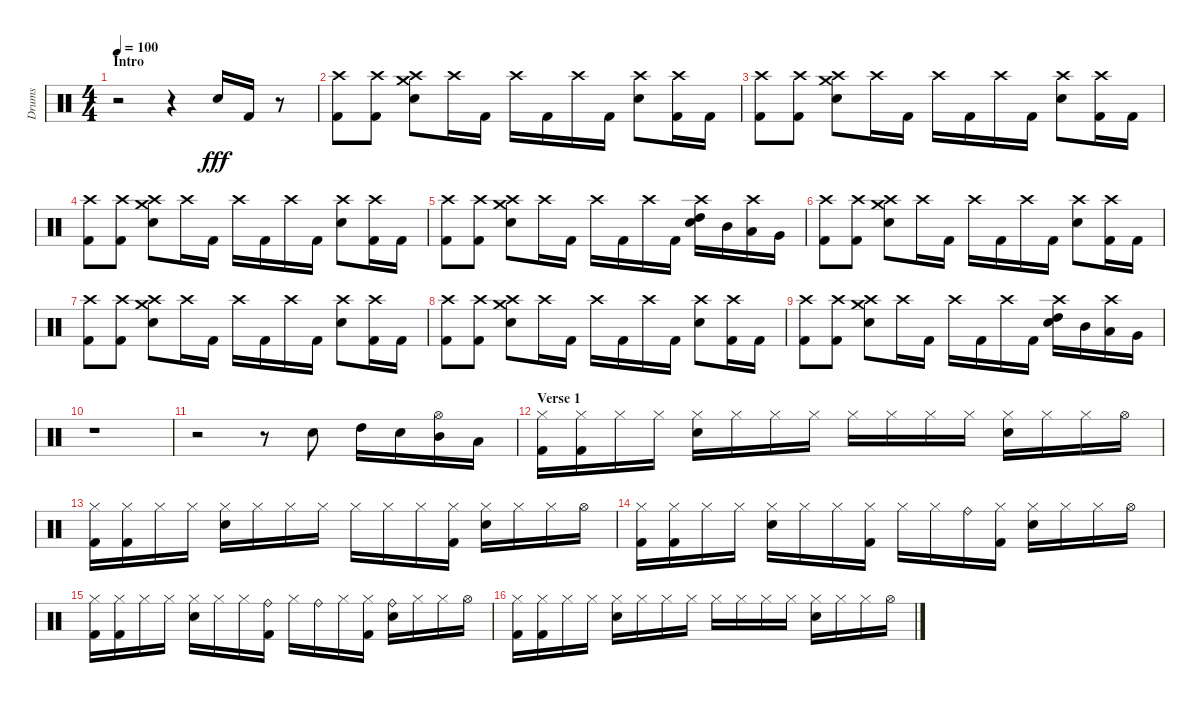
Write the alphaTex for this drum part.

\track ("Drums" "Drums") {instrument percussion}
\staff {score}
\articulation defaults
\ts (4 4)
\section ("" "Intro")
\tempo 100
\clef neutral
\ks c
r.2{dy fff} r.4 "Electric Snare (hit)".16 "Kick (hit) 2".16 r.8 |
("Crash high (hit)" "Kick (hit) 2").8 ("Crash high (hit)" "Kick (hit) 2").8 ("Crash high (hit)" "Crash medium (hit)" "Electric Snare (hit)").8 "Crash high (hit)".16 "Kick (hit) 2".16 "Crash high (hit)".16 "Kick (hit) 2".16 "Crash high (hit)".16 "Kick (hit) 2".16 ("Crash high (hit)" "Electric Snare (hit)").8 ("Crash high (hit)" "Kick (hit) 2").16 "Kick (hit) 2".16 |
("Crash high (hit)" "Kick (hit) 2").8 ("Crash high (hit)" "Kick (hit) 2").8 ("Crash high (hit)" "Crash medium (hit)" "Electric Snare (hit)").8 "Crash high (hit)".16 "Kick (hit) 2".16 "Crash high (hit)".16 "Kick (hit) 2".16 "Crash high (hit)".16 "Kick (hit) 2".16 ("Crash high (hit)" "Electric Snare (hit)").8 ("Crash high (hit)" "Kick (hit) 2").16 "Kick (hit) 2".16 |
("Crash high (hit)" "Kick (hit) 2").8 ("Crash high (hit)" "Kick (hit) 2").8 ("Crash high (hit)" "Crash medium (hit)" "Electric Snare (hit)").8 "Crash high (hit)".16 "Kick (hit) 2".16 "Crash high (hit)".16 "Kick (hit) 2".16 "Crash high (hit)".16 "Kick (hit) 2".16 ("Crash high (hit)" "Electric Snare (hit)").8 ("Crash high (hit)" "Kick (hit) 2").16 "Kick (hit) 2".16 |
("Crash high (hit)" "Kick (hit) 2").8 ("Crash high (hit)" "Kick (hit) 2").8 ("Crash high (hit)" "Crash medium (hit)" "Electric Snare (hit)").8 "Crash high (hit)".16 "Kick (hit) 2".16 "Crash high (hit)".16 "Kick (hit) 2".16 "Crash high (hit)".16 "Kick (hit) 2".16 ("Crash high (hit)" "High Tom (hit)" "Electric Snare (hit)").16 "Mid Tom (hit)".16 ("Crash high (hit)" "Low Tom (hit)").16 "Very Low Tom (hit)".16 |
("Crash high (hit)" "Kick (hit) 2").8 ("Crash high (hit)" "Kick (hit) 2").8 ("Crash high (hit)" "Crash medium (hit)" "Electric Snare (hit)").8 "Crash high (hit)".16 "Kick (hit) 2".16 "Crash high (hit)".16 "Kick (hit) 2".16 "Crash high (hit)".16 "Kick (hit) 2".16 ("Crash high (hit)" "Electric Snare (hit)").8 ("Crash high (hit)" "Kick (hit) 2").16 "Kick (hit) 2".16 |
("Crash high (hit)" "Kick (hit) 2").8 ("Crash high (hit)" "Kick (hit) 2").8 ("Crash high (hit)" "Crash medium (hit)" "Electric Snare (hit)").8 "Crash high (hit)".16 "Kick (hit) 2".16 "Crash high (hit)".16 "Kick (hit) 2".16 "Crash high (hit)".16 "Kick (hit) 2".16 ("Crash high (hit)" "Electric Snare (hit)").8 ("Crash high (hit)" "Kick (hit) 2").16 "Kick (hit) 2".16 |
("Crash high (hit)" "Kick (hit) 2").8 ("Crash high (hit)" "Kick (hit) 2").8 ("Crash high (hit)" "Crash medium (hit)" "Electric Snare (hit)").8 "Crash high (hit)".16 "Kick (hit) 2".16 "Crash high (hit)".16 "Kick (hit) 2".16 "Crash high (hit)".16 "Kick (hit) 2".16 ("Crash high (hit)" "Electric Snare (hit)").8 ("Crash high (hit)" "Kick (hit) 2").16 "Kick (hit) 2".16 |
("Crash high (hit)" "Kick (hit) 2").8 ("Crash high (hit)" "Kick (hit) 2").8 ("Crash high (hit)" "Crash medium (hit)" "Electric Snare (hit)").8 "Crash high (hit)".16 "Kick (hit) 2".16 "Crash high (hit)".16 "Kick (hit) 2".16 "Crash high (hit)".16 "Kick (hit) 2".16 ("Crash high (hit)" "High Tom (hit)" "Electric Snare (hit)").16 "Mid Tom (hit)".16 ("Crash high (hit)" "Low Tom (hit)").16 "Very Low Tom (hit)".16 |
r.1 |
r.2 r.8 "Electric Snare (hit)".8 "High Tom (hit)".16 "Electric Snare (hit)".16 ("Mid Tom (hit)" "Hi-Hat (open)").16 "Low Tom (hit)".16 |
\section ("" "Verse 1")
("Hi-Hat (closed)" "Kick (hit) 2").16 ("Hi-Hat (closed)" "Kick (hit) 2").16 "Hi-Hat (closed)".16 "Hi-Hat (closed)".16 ("Hi-Hat (closed)" "Electric Snare (hit)").16 "Hi-Hat (closed)".16 "Hi-Hat (closed)".16 "Hi-Hat (closed)".16 "Hi-Hat (closed)".16 "Hi-Hat (closed)".16 "Hi-Hat (closed)".16 "Hi-Hat (closed)".16 ("Hi-Hat (closed)" "Electric Snare (hit)").16 "Hi-Hat (closed)".16 "Hi-Hat (closed)".16 "Hi-Hat (open)".16 |
("Hi-Hat (closed)" "Kick (hit) 2").16 ("Hi-Hat (closed)" "Kick (hit) 2").16 "Hi-Hat (closed)".16 "Hi-Hat (closed)".16 ("Hi-Hat (closed)" "Electric Snare (hit)").16 "Hi-Hat (closed)".16 "Hi-Hat (closed)".16 "Hi-Hat (closed)".16 "Hi-Hat (closed)".16 "Hi-Hat (closed)".16 "Hi-Hat (closed)".16 ("Hi-Hat (closed)" "Kick (hit) 2").16 ("Hi-Hat (closed)" "Electric Snare (hit)").16 "Hi-Hat (closed)".16 "Hi-Hat (closed)".16 "Hi-Hat (open)".16 |
("Hi-Hat (closed)" "Kick (hit) 2").16 ("Hi-Hat (closed)" "Kick (hit) 2").16 "Hi-Hat (closed)".16 "Hi-Hat (closed)".16 ("Hi-Hat (closed)" "Electric Snare (hit)").16 "Hi-Hat (closed)".16 "Hi-Hat (closed)".16 ("Hi-Hat (closed)" "Kick (hit) 2").16 "Hi-Hat (closed)".16 "Hi-Hat (closed)".16 "Ride (bell)".16 ("Hi-Hat (closed)" "Kick (hit) 2").16 ("Hi-Hat (closed)" "Electric Snare (hit)").16 "Hi-Hat (closed)".16 "Hi-Hat (closed)".16 "Hi-Hat (open)".16 |
("Hi-Hat (closed)" "Kick (hit) 2").16 ("Hi-Hat (closed)" "Kick (hit) 2").16 "Hi-Hat (closed)".16 "Hi-Hat (closed)".16 ("Hi-Hat (closed)" "Electric Snare (hit)").16 "Hi-Hat (closed)".16 "Hi-Hat (closed)".16 ("Ride (bell)" "Kick (hit) 2").16 "Hi-Hat (closed)".16 "Ride (bell)".16 "Hi-Hat (closed)".16 ("Hi-Hat (closed)" "Kick (hit) 2").16 ("Ride (bell)" "Electric Snare (hit)").16 "Hi-Hat (closed)".16 "Hi-Hat (closed)".16 "Hi-Hat (open)".16 |
("Hi-Hat (closed)" "Kick (hit) 2").16 ("Hi-Hat (closed)" "Kick (hit) 2").16 "Hi-Hat (closed)".16 "Hi-Hat (closed)".16 ("Hi-Hat (closed)" "Electric Snare (hit)").16 "Hi-Hat (closed)".16 "Hi-Hat (closed)".16 "Hi-Hat (closed)".16 "Hi-Hat (closed)".16 "Hi-Hat (closed)".16 "Hi-Hat (closed)".16 "Hi-Hat (closed)".16 ("Hi-Hat (closed)" "Electric Snare (hit)").16 "Hi-Hat (closed)".16 "Hi-Hat (closed)".16 "Hi-Hat (open)".16
